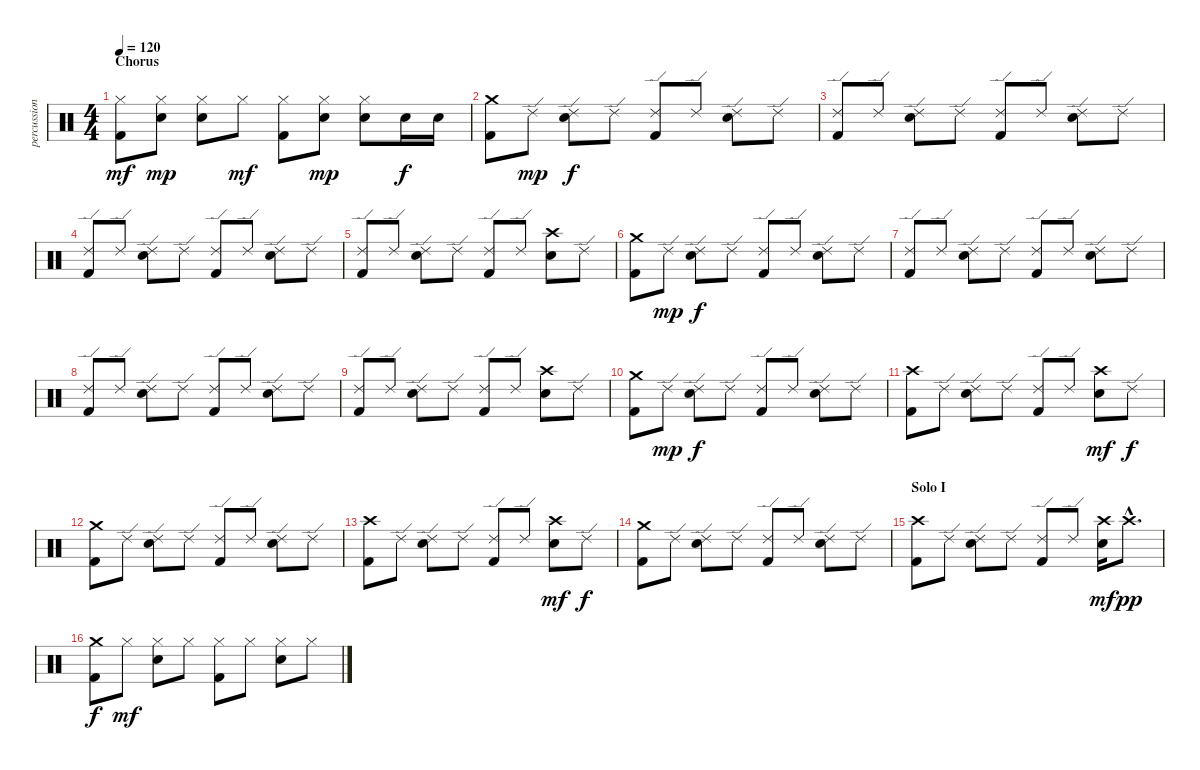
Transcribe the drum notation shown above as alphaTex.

\track ("percussion" "percussion") {instrument percussion}
\staff {score}
\articulation defaults
\ts (4 4)
\section ("" "Chorus")
\tempo 120
\clef neutral
\ks c
("Hi-Hat (closed)" "Kick (hit) 2").8{dy mf} ("Hi-Hat (closed)" "Electric Snare (hit)").8{dy mp} ("Hi-Hat (closed)" "Electric Snare (hit)").8 "Hi-Hat (closed)".8{dy mf} ("Hi-Hat (closed)" "Kick (hit) 2").8 ("Hi-Hat (closed)" "Electric Snare (hit)").8{dy mp} ("Hi-Hat (closed)" "Electric Snare (hit)").8 "Electric Snare (hit)".16{dy f} "Electric Snare (hit)".16 |
("Crash medium (hit)" "Kick (hit) 2").8 "Ride (edge) 2".8{dy mp} ("Ride (edge) 2" "Electric Snare (hit)").8{dy f} "Ride (edge) 2".8 ("Ride (edge) 2" "Kick (hit) 2").8 "Ride (edge) 2".8 ("Ride (edge) 2" "Electric Snare (hit)").8 "Ride (edge) 2".8 |
("Ride (edge) 2" "Kick (hit) 2").8 "Ride (edge) 2".8 ("Ride (edge) 2" "Electric Snare (hit)").8 "Ride (edge) 2".8 ("Ride (edge) 2" "Kick (hit) 2").8 "Ride (edge) 2".8 ("Ride (edge) 2" "Electric Snare (hit)").8 "Ride (edge) 2".8 |
("Ride (edge) 2" "Kick (hit) 2").8 "Ride (edge) 2".8 ("Ride (edge) 2" "Electric Snare (hit)").8 "Ride (edge) 2".8 ("Ride (edge) 2" "Kick (hit) 2").8 "Ride (edge) 2".8 ("Ride (edge) 2" "Electric Snare (hit)").8 "Ride (edge) 2".8 |
("Ride (edge) 2" "Kick (hit) 2").8 "Ride (edge) 2".8 ("Ride (edge) 2" "Electric Snare (hit)").8 "Ride (edge) 2".8 ("Ride (edge) 2" "Kick (hit) 2").8 "Ride (edge) 2".8 ("Crash high (hit)" "Electric Snare (hit)").8 "Ride (edge) 2".8 |
("Crash medium (hit)" "Kick (hit) 2").8 "Ride (edge) 2".8{dy mp} ("Ride (edge) 2" "Electric Snare (hit)").8{dy f} "Ride (edge) 2".8 ("Ride (edge) 2" "Kick (hit) 2").8 "Ride (edge) 2".8 ("Ride (edge) 2" "Electric Snare (hit)").8 "Ride (edge) 2".8 |
("Ride (edge) 2" "Kick (hit) 2").8 "Ride (edge) 2".8 ("Ride (edge) 2" "Electric Snare (hit)").8 "Ride (edge) 2".8 ("Ride (edge) 2" "Kick (hit) 2").8 "Ride (edge) 2".8 ("Ride (edge) 2" "Electric Snare (hit)").8 "Ride (edge) 2".8 |
("Ride (edge) 2" "Kick (hit) 2").8 "Ride (edge) 2".8 ("Ride (edge) 2" "Electric Snare (hit)").8 "Ride (edge) 2".8 ("Ride (edge) 2" "Kick (hit) 2").8 "Ride (edge) 2".8 ("Ride (edge) 2" "Electric Snare (hit)").8 "Ride (edge) 2".8 |
("Ride (edge) 2" "Kick (hit) 2").8 "Ride (edge) 2".8 ("Ride (edge) 2" "Electric Snare (hit)").8 "Ride (edge) 2".8 ("Ride (edge) 2" "Kick (hit) 2").8 "Ride (edge) 2".8 ("Crash high (hit)" "Electric Snare (hit)").8 "Ride (edge) 2".8 |
("Crash medium (hit)" "Kick (hit) 2").8 "Ride (edge) 2".8{dy mp} ("Ride (edge) 2" "Electric Snare (hit)").8{dy f} "Ride (edge) 2".8 ("Ride (edge) 2" "Kick (hit) 2").8 "Ride (edge) 2".8 ("Ride (edge) 2" "Electric Snare (hit)").8 "Ride (edge) 2".8 |
("Crash high (hit)" "Kick (hit) 2").8 "Ride (edge) 2".8 ("Ride (edge) 2" "Electric Snare (hit)").8 "Ride (edge) 2".8 ("Ride (edge) 2" "Kick (hit) 2").8 "Ride (edge) 2".8 ("Crash high (hit)" "Electric Snare (hit)").8{dy mf} "Ride (edge) 2".8{dy f} |
("Crash medium (hit)" "Kick (hit) 2").8 "Ride (edge) 2".8 ("Ride (edge) 2" "Electric Snare (hit)").8 "Ride (edge) 2".8 ("Ride (edge) 2" "Kick (hit) 2").8 "Ride (edge) 2".8 ("Ride (edge) 2" "Electric Snare (hit)").8 "Ride (edge) 2".8 |
("Crash high (hit)" "Kick (hit) 2").8 "Ride (edge) 2".8 ("Ride (edge) 2" "Electric Snare (hit)").8 "Ride (edge) 2".8 ("Ride (edge) 2" "Kick (hit) 2").8 "Ride (edge) 2".8 ("Crash high (hit)" "Electric Snare (hit)").8{dy mf} "Ride (edge) 2".8{dy f} |
("Crash medium (hit)" "Kick (hit) 2").8 "Ride (edge) 2".8 ("Ride (edge) 2" "Electric Snare (hit)").8 "Ride (edge) 2".8 ("Ride (edge) 2" "Kick (hit) 2").8 "Ride (edge) 2".8 ("Ride (edge) 2" "Electric Snare (hit)").8 "Ride (edge) 2".8 |
\section ("" "Solo I")
("Crash high (hit)" "Kick (hit) 2").8 "Ride (edge) 2".8 ("Ride (edge) 2" "Electric Snare (hit)").8 "Ride (edge) 2".8 ("Ride (edge) 2" "Kick (hit) 2").8 "Ride (edge) 2".8 ("Crash high (hit)" "Electric Snare (hit)").16{dy mf} "Crash high (hit)"{hac}.8{d dy pp} |
("Crash medium (hit)" "Kick (hit) 2").8{dy f} "Hi-Hat (closed)".8{dy mf} ("Hi-Hat (closed)" "Electric Snare (hit)").8 "Hi-Hat (closed)".8 ("Hi-Hat (closed)" "Kick (hit) 2").8 "Hi-Hat (closed)".8 ("Hi-Hat (closed)" "Electric Snare (hit)").8 "Hi-Hat (closed)".8
